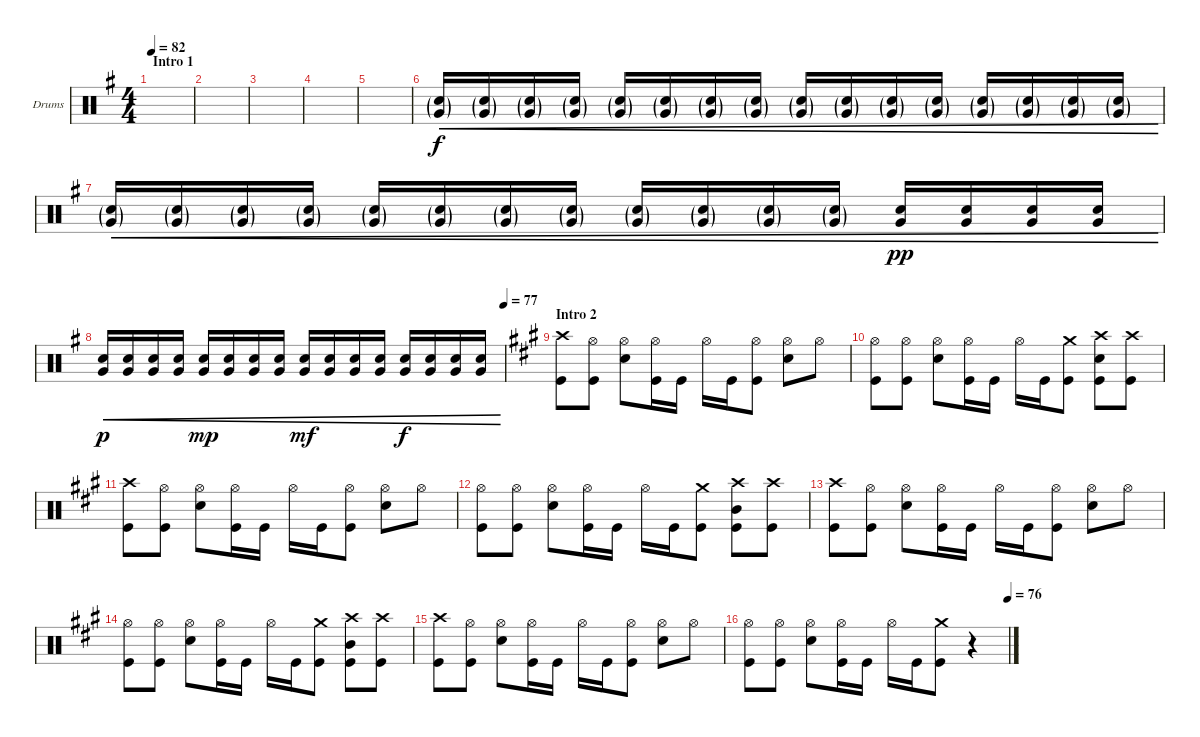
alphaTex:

\defaultSystemsLayout 4
\bracketExtendMode groupsimilarinstruments
\firstSystemTrackNameOrientation horizontal
\otherSystemsTrackNameOrientation horizontal
\track ("Drums" "Drums") {instrument percussion}
\staff {score}
\articulation defaults
\ts (4 4)
\section ("" "Intro 1")
\tempo 82
\clef neutral
\ks eminor
|
|
|
|
|
("Very Low Tom (hit)"{g} "Snare (hit) 2"{g}).16{cre} ("Very Low Tom (hit)"{g} "Snare (hit) 2"{g}).16{cre} ("Very Low Tom (hit)"{g} "Snare (hit) 2"{g}).16{cre} ("Very Low Tom (hit)"{g} "Snare (hit) 2"{g}).16{cre} ("Very Low Tom (hit)"{g} "Snare (hit) 2"{g}).16{cre} ("Very Low Tom (hit)"{g} "Snare (hit) 2"{g}).16{cre} ("Very Low Tom (hit)"{g} "Snare (hit) 2"{g}).16{cre} ("Very Low Tom (hit)"{g} "Snare (hit) 2"{g}).16{cre} ("Very Low Tom (hit)"{g} "Snare (hit) 2"{g}).16{cre} ("Very Low Tom (hit)"{g} "Snare (hit) 2"{g}).16{cre} ("Very Low Tom (hit)"{g} "Snare (hit) 2"{g}).16{cre} ("Very Low Tom (hit)"{g} "Snare (hit) 2"{g}).16{cre} ("Very Low Tom (hit)"{g} "Snare (hit) 2"{g}).16{cre} ("Very Low Tom (hit)"{g} "Snare (hit) 2"{g}).16{cre} ("Very Low Tom (hit)"{g} "Snare (hit) 2"{g}).16{cre} ("Very Low Tom (hit)"{g} "Snare (hit) 2"{g}).16{cre} |
("Very Low Tom (hit)"{g} "Snare (hit) 2"{g}).16{cre} ("Very Low Tom (hit)"{g} "Snare (hit) 2"{g}).16{cre} ("Very Low Tom (hit)"{g} "Snare (hit) 2"{g}).16{cre} ("Very Low Tom (hit)"{g} "Snare (hit) 2"{g}).16{cre} ("Very Low Tom (hit)"{g} "Snare (hit) 2"{g}).16{cre} ("Very Low Tom (hit)"{g} "Snare (hit) 2"{g}).16{cre} ("Very Low Tom (hit)"{g} "Snare (hit) 2"{g}).16{cre} ("Very Low Tom (hit)"{g} "Snare (hit) 2"{g}).16{cre} ("Very Low Tom (hit)"{g} "Snare (hit) 2"{g}).16{cre} ("Very Low Tom (hit)"{g} "Snare (hit) 2"{g}).16{cre} ("Very Low Tom (hit)"{g} "Snare (hit) 2"{g}).16{cre} ("Very Low Tom (hit)"{g} "Snare (hit) 2"{g}).16{cre} ("Very Low Tom (hit)" "Snare (hit) 2").16{cre dy pp} ("Very Low Tom (hit)" "Snare (hit) 2").16{cre} ("Very Low Tom (hit)" "Snare (hit) 2").16{cre} ("Very Low Tom (hit)" "Snare (hit) 2").16{cre} |
\tempo (77 1)
("Very Low Tom (hit)" "Snare (hit) 2").16{cre dy p} ("Very Low Tom (hit)" "Snare (hit) 2").16{cre} ("Very Low Tom (hit)" "Snare (hit) 2").16{cre} ("Very Low Tom (hit)" "Snare (hit) 2").16{cre} ("Very Low Tom (hit)" "Snare (hit) 2").16{cre dy mp} ("Very Low Tom (hit)" "Snare (hit) 2").16{cre} ("Very Low Tom (hit)" "Snare (hit) 2").16{cre} ("Very Low Tom (hit)" "Snare (hit) 2").16{cre} ("Very Low Tom (hit)" "Snare (hit) 2").16{cre dy mf} ("Very Low Tom (hit)" "Snare (hit) 2").16{cre} ("Very Low Tom (hit)" "Snare (hit) 2").16{cre} ("Very Low Tom (hit)" "Snare (hit) 2").16{cre} ("Very Low Tom (hit)" "Snare (hit) 2").16{cre dy f} ("Very Low Tom (hit)" "Snare (hit) 2").16{cre} ("Very Low Tom (hit)" "Snare (hit) 2").16{cre} ("Very Low Tom (hit)" "Snare (hit) 2").16{cre} |
\section ("" "Intro 2")
\ks f#minor
("Kick (hit)" "Crash high (hit)").8 ("Hi-Hat (open)" "Kick (hit)").8 ("Hi-Hat (open)" "Snare (hit) 2").8 ("Hi-Hat (open)" "Kick (hit)").16 "Kick (hit)".16 "Hi-Hat (open)".16 "Kick (hit)".16 ("Hi-Hat (open)" "Kick (hit)").8 ("Hi-Hat (open)" "Snare (hit) 2").8 "Hi-Hat (open)".8 |
("Kick (hit)" "Hi-Hat (open)").8 ("Kick (hit)" "Hi-Hat (open)").8 ("Hi-Hat (open)" "Snare (hit) 2").8 ("Hi-Hat (open)" "Kick (hit)").16 "Kick (hit)".16 "Hi-Hat (open)".16 "Kick (hit)".16 ("Crash medium (hit)" "Kick (hit)").8 ("Crash high (hit)" "Kick (hit)" "Snare (hit) 2").8 ("Crash high (hit)" "Kick (hit)").8 |
("Kick (hit)" "Crash high (hit)").8 ("Hi-Hat (open)" "Kick (hit)").8 ("Hi-Hat (open)" "Snare (hit) 2").8 ("Hi-Hat (open)" "Kick (hit)").16 "Kick (hit)".16 "Hi-Hat (open)".16 "Kick (hit)".16 ("Hi-Hat (open)" "Kick (hit)").8 ("Hi-Hat (open)" "Snare (hit) 2").8 "Hi-Hat (open)".8 |
("Kick (hit)" "Hi-Hat (open)").8 ("Kick (hit)" "Hi-Hat (open)").8 ("Hi-Hat (open)" "Snare (hit) 2").8 ("Hi-Hat (open)" "Kick (hit)").16 "Kick (hit)".16 "Hi-Hat (open)".16 "Kick (hit)".16 ("Crash medium (hit)" "Kick (hit)").8 ("Crash high (hit)" "Kick (hit)" "Mid Tom (hit)").8 ("Crash high (hit)" "Kick (hit)").8 |
("Kick (hit)" "Crash high (hit)").8 ("Hi-Hat (open)" "Kick (hit)").8 ("Hi-Hat (open)" "Snare (hit) 2").8 ("Hi-Hat (open)" "Kick (hit)").16 "Kick (hit)".16 "Hi-Hat (open)".16 "Kick (hit)".16 ("Hi-Hat (open)" "Kick (hit)").8 ("Hi-Hat (open)" "Snare (hit) 2").8 "Hi-Hat (open)".8 |
("Kick (hit)" "Hi-Hat (open)").8 ("Kick (hit)" "Hi-Hat (open)").8 ("Hi-Hat (open)" "Snare (hit) 2").8 ("Hi-Hat (open)" "Kick (hit)").16 "Kick (hit)".16 "Hi-Hat (open)".16 "Kick (hit)".16 ("Crash medium (hit)" "Kick (hit)").8 ("Crash high (hit)" "Kick (hit)" "Mid Tom (hit)").8 ("Crash high (hit)" "Kick (hit)").8 |
("Kick (hit)" "Crash high (hit)").8 ("Hi-Hat (open)" "Kick (hit)").8 ("Hi-Hat (open)" "Snare (hit) 2").8 ("Hi-Hat (open)" "Kick (hit)").16 "Kick (hit)".16 "Hi-Hat (open)".16 "Kick (hit)".16 ("Hi-Hat (open)" "Kick (hit)").8 ("Hi-Hat (open)" "Snare (hit) 2").8 "Hi-Hat (open)".8 |
\tempo (76 1)
("Kick (hit)" "Hi-Hat (open)").8 ("Kick (hit)" "Hi-Hat (open)").8 ("Hi-Hat (open)" "Snare (hit) 2").8 ("Hi-Hat (open)" "Kick (hit)").16 "Kick (hit)".16 "Hi-Hat (open)".16 "Kick (hit)".16 ("Crash medium (hit)" "Kick (hit)").8 r.4
